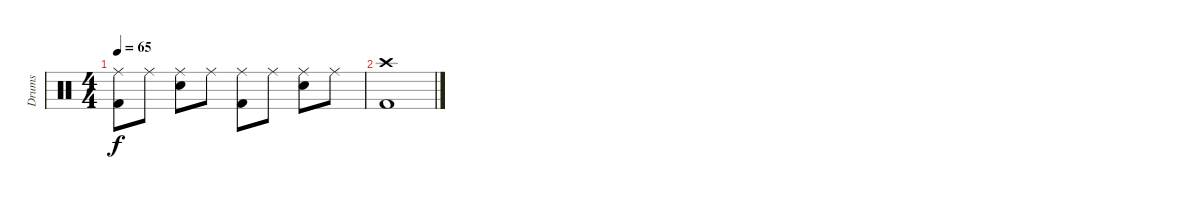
\track ("Drums" "Drums") {instrument percussion}
\staff {score}
\articulation defaults
\ts (4 4)
\tempo 65
\clef neutral
\ks c
("Ride (middle)" "Kick (hit) 2").8{dy f} "Ride (middle)".8 ("Ride (middle)" "Electric Snare (hit)").8 "Ride (middle)".8 ("Ride (middle)" "Kick (hit) 2").8 "Ride (middle)".8 ("Ride (middle)" "Electric Snare (hit)").8 "Ride (middle)".8 |
("Crash high (hit)" "Kick (hit) 2").1
